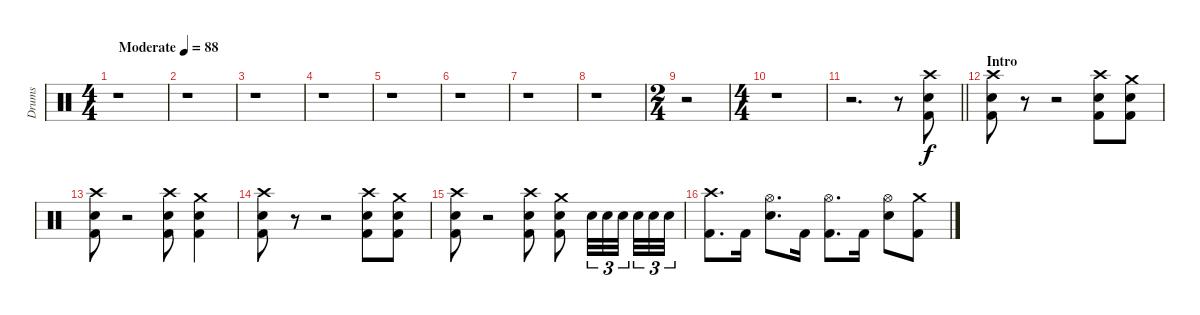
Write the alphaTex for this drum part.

\track ("Drums" "Drums") {instrument percussion}
\staff {score}
\articulation defaults
\ts (4 4)
\tempo (88 "Moderate")
\clef neutral
\ks c
r.1{dy f} |
r.1 |
r.1 |
r.1 |
r.1 |
r.1 |
r.1 |
r.1 |
\ts (2 4)
r.2 |
\ts (4 4)
r.1 |
\barLineRight lightlight
r.2{d} r.8 ("Crash high (hit)" "Snare (hit) 2" "Kick (hit) 2").8 |
\section ("" "Intro")
("Crash high (hit)" "Snare (hit) 2" "Kick (hit) 2").8 r.8 r.2 ("Crash high (hit)" "Snare (hit) 2" "Kick (hit) 2").8 ("Crash medium (hit)" "Snare (hit) 2" "Kick (hit) 2").8 |
("Crash high (hit)" "Snare (hit) 2" "Kick (hit) 2").8 r.2 ("Crash high (hit)" "Snare (hit) 2" "Kick (hit) 2").8 ("Crash medium (hit)" "Snare (hit) 2" "Kick (hit) 2").4 |
("Crash high (hit)" "Snare (hit) 2" "Kick (hit) 2").8 r.8 r.2 ("Crash high (hit)" "Snare (hit) 2" "Kick (hit) 2").8 ("Crash medium (hit)" "Snare (hit) 2" "Kick (hit) 2").8 |
("Crash high (hit)" "Snare (hit) 2" "Kick (hit) 2").8 r.2 ("Crash high (hit)" "Snare (hit) 2" "Kick (hit) 2").8 ("Crash medium (hit)" "Snare (hit) 2" "Kick (hit) 2").8 "Snare (hit) 2".32{tu (3 2)} "Snare (hit) 2".32{tu (3 2)} "Snare (hit) 2".32{tu (3 2) beam splitsecondary} "Snare (hit) 2".32{tu (3 2)} "Snare (hit) 2".32{tu (3 2)} "Snare (hit) 2".32{tu (3 2)} |
("Crash high (hit)" "Kick (hit) 2").8{d} "Kick (hit) 2".16 ("Hi-Hat (open)" "Snare (hit) 2").8{d} "Kick (hit) 2".16 ("Hi-Hat (open)" "Kick (hit) 2").8{d} "Kick (hit) 2".16 ("Hi-Hat (open)" "Snare (hit) 2").8 ("Crash medium (hit)" "Kick (hit) 2").8
